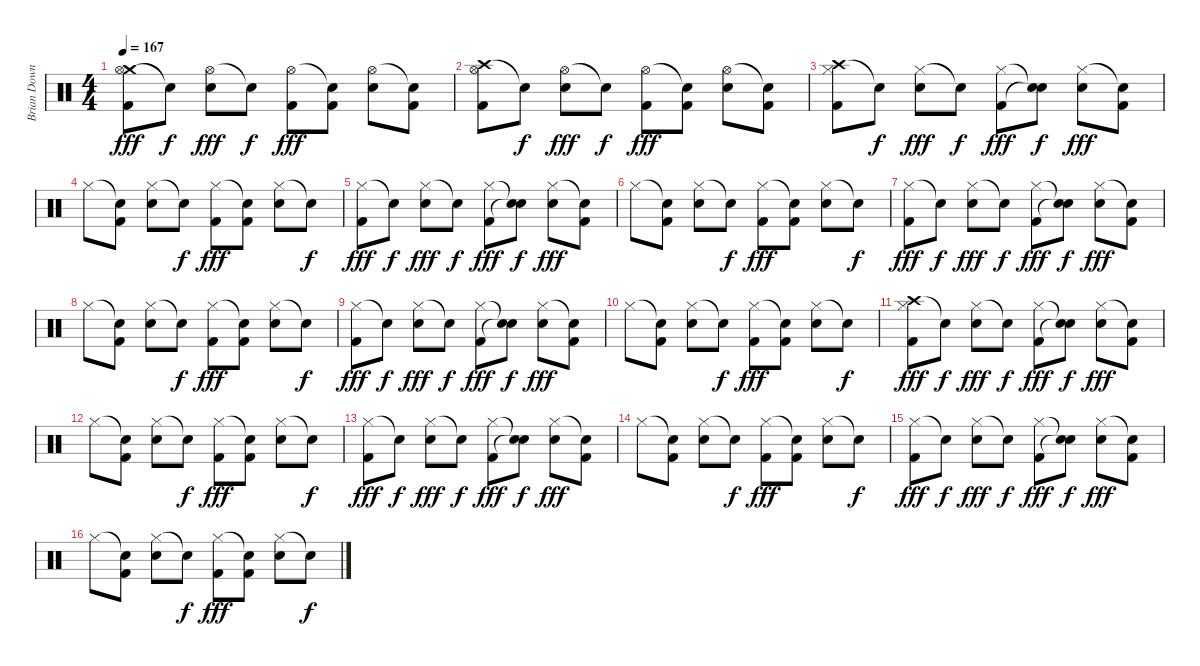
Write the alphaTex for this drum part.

\track ("Brian Downey" "Brian Down") {instrument percussion}
\staff {score}
\articulation defaults
\ts (4 4)
\tempo 167
\clef neutral
\ks c
("Crash medium (hit)" "Hi-Hat (open)" "Kick (hit) 2").8{dy fff} "Snare (hit)"{t}.8{dy f} ("Hi-Hat (open)" "Electric Snare (hit)").8{dy fff} "Snare (hit)"{t}.8{dy f} ("Hi-Hat (open)" "Kick (hit) 2").8{dy fff} ("Snare (hit)"{t} "Kick (hit) 2").8 ("Hi-Hat (open)" "Electric Snare (hit)").8 ("Snare (hit)"{t} "Kick (hit) 2").8 |
("Crash high (hit)" "Hi-Hat (open)" "Kick (hit) 2").8 "Snare (hit)"{t}.8{dy f} ("Hi-Hat (open)" "Electric Snare (hit)").8{dy fff} "Snare (hit)"{t}.8{dy f} ("Hi-Hat (open)" "Kick (hit) 2").8{dy fff} ("Snare (hit)"{t} "Kick (hit) 2").8 ("Hi-Hat (open)" "Electric Snare (hit)").8 ("Snare (hit)"{t} "Kick (hit) 2").8 |
("Crash high (hit)" "Hi-Hat (closed)" "Kick (hit) 2").8 "Snare (hit)"{t}.8{dy f} ("Hi-Hat (closed)" "Electric Snare (hit)").8{dy fff} "Snare (hit)"{t}.8{dy f} ("Hi-Hat (closed)" "Kick (hit) 2").8{dy fff} ("Snare (hit)"{t} "Electric Snare (hit)"{t}).8{dy f} ("Hi-Hat (closed)" "Electric Snare (hit)").8{dy fff} ("Snare (hit)"{t} "Kick (hit) 2").8 |
"Hi-Hat (closed)".8 ("Snare (hit)"{t} "Kick (hit) 2").8 ("Hi-Hat (closed)" "Electric Snare (hit)").8 "Snare (hit)"{t}.8{dy f} ("Hi-Hat (closed)" "Kick (hit) 2").8{dy fff} ("Snare (hit)"{t} "Kick (hit) 2").8 ("Hi-Hat (closed)" "Electric Snare (hit)").8 "Snare (hit)"{t}.8{dy f} |
("Hi-Hat (closed)" "Kick (hit) 2").8{dy fff} "Snare (hit)"{t}.8{dy f} ("Hi-Hat (closed)" "Electric Snare (hit)").8{dy fff} "Snare (hit)"{t}.8{dy f} ("Hi-Hat (closed)" "Kick (hit) 2").8{dy fff} ("Snare (hit)"{t} "Electric Snare (hit)"{t}).8{dy f} ("Hi-Hat (closed)" "Electric Snare (hit)").8{dy fff} ("Snare (hit)"{t} "Kick (hit) 2").8 |
"Hi-Hat (closed)".8 ("Snare (hit)"{t} "Kick (hit) 2").8 ("Hi-Hat (closed)" "Electric Snare (hit)").8 "Snare (hit)"{t}.8{dy f} ("Hi-Hat (closed)" "Kick (hit) 2").8{dy fff} ("Snare (hit)"{t} "Kick (hit) 2").8 ("Hi-Hat (closed)" "Electric Snare (hit)").8 "Snare (hit)"{t}.8{dy f} |
("Hi-Hat (closed)" "Kick (hit) 2").8{dy fff} "Snare (hit)"{t}.8{dy f} ("Hi-Hat (closed)" "Electric Snare (hit)").8{dy fff} "Snare (hit)"{t}.8{dy f} ("Hi-Hat (closed)" "Kick (hit) 2").8{dy fff} ("Snare (hit)"{t} "Electric Snare (hit)"{t}).8{dy f} ("Hi-Hat (closed)" "Electric Snare (hit)").8{dy fff} ("Snare (hit)"{t} "Kick (hit) 2").8 |
"Hi-Hat (closed)".8 ("Snare (hit)"{t} "Kick (hit) 2").8 ("Hi-Hat (closed)" "Electric Snare (hit)").8 "Snare (hit)"{t}.8{dy f} ("Hi-Hat (closed)" "Kick (hit) 2").8{dy fff} ("Snare (hit)"{t} "Kick (hit) 2").8 ("Hi-Hat (closed)" "Electric Snare (hit)").8 "Snare (hit)"{t}.8{dy f} |
("Hi-Hat (closed)" "Kick (hit) 2").8{dy fff} "Snare (hit)"{t}.8{dy f} ("Hi-Hat (closed)" "Electric Snare (hit)").8{dy fff} "Snare (hit)"{t}.8{dy f} ("Hi-Hat (closed)" "Kick (hit) 2").8{dy fff} ("Snare (hit)"{t} "Electric Snare (hit)"{t}).8{dy f} ("Hi-Hat (closed)" "Electric Snare (hit)").8{dy fff} ("Snare (hit)"{t} "Kick (hit) 2").8 |
"Hi-Hat (closed)".8 ("Snare (hit)"{t} "Kick (hit) 2").8 ("Hi-Hat (closed)" "Electric Snare (hit)").8 "Snare (hit)"{t}.8{dy f} ("Hi-Hat (closed)" "Kick (hit) 2").8{dy fff} ("Snare (hit)"{t} "Kick (hit) 2").8 ("Hi-Hat (closed)" "Electric Snare (hit)").8 "Snare (hit)"{t}.8{dy f} |
("Crash high (hit)" "Hi-Hat (closed)" "Kick (hit) 2").8{dy fff} "Snare (hit)"{t}.8{dy f} ("Hi-Hat (closed)" "Electric Snare (hit)").8{dy fff} "Snare (hit)"{t}.8{dy f} ("Hi-Hat (closed)" "Kick (hit) 2").8{dy fff} ("Snare (hit)"{t} "Electric Snare (hit)"{t}).8{dy f} ("Hi-Hat (closed)" "Electric Snare (hit)").8{dy fff} ("Snare (hit)"{t} "Kick (hit) 2").8 |
"Hi-Hat (closed)".8 ("Snare (hit)"{t} "Kick (hit) 2").8 ("Hi-Hat (closed)" "Electric Snare (hit)").8 "Snare (hit)"{t}.8{dy f} ("Hi-Hat (closed)" "Kick (hit) 2").8{dy fff} ("Snare (hit)"{t} "Kick (hit) 2").8 ("Hi-Hat (closed)" "Electric Snare (hit)").8 "Snare (hit)"{t}.8{dy f} |
("Hi-Hat (closed)" "Kick (hit) 2").8{dy fff} "Snare (hit)"{t}.8{dy f} ("Hi-Hat (closed)" "Electric Snare (hit)").8{dy fff} "Snare (hit)"{t}.8{dy f} ("Hi-Hat (closed)" "Kick (hit) 2").8{dy fff} ("Snare (hit)"{t} "Electric Snare (hit)"{t}).8{dy f} ("Hi-Hat (closed)" "Electric Snare (hit)").8{dy fff} ("Snare (hit)"{t} "Kick (hit) 2").8 |
"Hi-Hat (closed)".8 ("Snare (hit)"{t} "Kick (hit) 2").8 ("Hi-Hat (closed)" "Electric Snare (hit)").8 "Snare (hit)"{t}.8{dy f} ("Hi-Hat (closed)" "Kick (hit) 2").8{dy fff} ("Snare (hit)"{t} "Kick (hit) 2").8 ("Hi-Hat (closed)" "Electric Snare (hit)").8 "Snare (hit)"{t}.8{dy f} |
("Hi-Hat (closed)" "Kick (hit) 2").8{dy fff} "Snare (hit)"{t}.8{dy f} ("Hi-Hat (closed)" "Electric Snare (hit)").8{dy fff} "Snare (hit)"{t}.8{dy f} ("Hi-Hat (closed)" "Kick (hit) 2").8{dy fff} ("Snare (hit)"{t} "Electric Snare (hit)"{t}).8{dy f} ("Hi-Hat (closed)" "Electric Snare (hit)").8{dy fff} ("Snare (hit)"{t} "Kick (hit) 2").8 |
"Hi-Hat (closed)".8 ("Snare (hit)"{t} "Kick (hit) 2").8 ("Hi-Hat (closed)" "Electric Snare (hit)").8 "Snare (hit)"{t}.8{dy f} ("Hi-Hat (closed)" "Kick (hit) 2").8{dy fff} ("Snare (hit)"{t} "Kick (hit) 2").8 ("Hi-Hat (closed)" "Electric Snare (hit)").8 "Snare (hit)"{t}.8{dy f}
